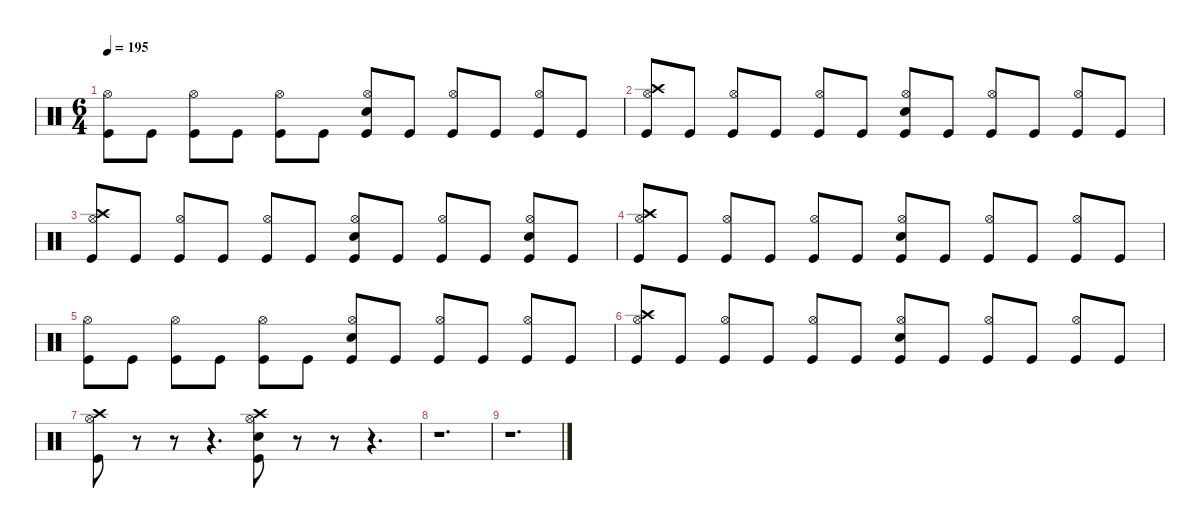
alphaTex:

\defaultSystemsLayout 4
\hideDynamics
\bracketExtendMode nobrackets
\singleTrackTrackNamePolicy hidden
\multiTrackTrackNamePolicy hidden
\firstSystemTrackNameMode fullname
\firstSystemTrackNameOrientation horizontal
\otherSystemsTrackNameOrientation horizontal
\track ("Percussion" "drm.") {defaultSystemsLayout 2 instrument percussion}
\staff {score}
\articulation defaults
\ts (6 4)
\tempo 195
\clef neutral
\ks c
("Hi-Hat (open)" "Kick (hit)").8{dy f beam Down} "Kick (hit)".8{beam Down} ("Hi-Hat (open)" "Kick (hit)").8{beam Down} "Kick (hit)".8{beam Down} ("Hi-Hat (open)" "Kick (hit)").8{beam Down} "Kick (hit)".8{beam Down} ("Snare (hit) 2" "Hi-Hat (open)" "Kick (hit)").8{beam Up} "Kick (hit)".8{beam Up} ("Hi-Hat (open)" "Kick (hit)").8{beam Up} "Kick (hit)".8{beam Up} ("Hi-Hat (open)" "Kick (hit)").8{beam Up} "Kick (hit)".8{beam Up} |
("Crash high (hit)" "Hi-Hat (open)" "Kick (hit)").8{beam Up} "Kick (hit)".8{beam Up} ("Hi-Hat (open)" "Kick (hit)").8{beam Up} "Kick (hit)".8{beam Up} ("Hi-Hat (open)" "Kick (hit)").8{beam Up} "Kick (hit)".8{beam Up} ("Snare (hit) 2" "Hi-Hat (open)" "Kick (hit)").8{beam Up} "Kick (hit)".8{beam Up} ("Hi-Hat (open)" "Kick (hit)").8{beam Up} "Kick (hit)".8{beam Up} ("Hi-Hat (open)" "Kick (hit)").8{beam Up} "Kick (hit)".8{beam Up} |
("Crash high (hit)" "Hi-Hat (open)" "Kick (hit)").8{beam Up} "Kick (hit)".8{beam Up} ("Hi-Hat (open)" "Kick (hit)").8{beam Up} "Kick (hit)".8{beam Up} ("Hi-Hat (open)" "Kick (hit)").8{beam Up} "Kick (hit)".8{beam Up} ("Snare (hit) 2" "Hi-Hat (open)" "Kick (hit)").8{beam Up} "Kick (hit)".8{beam Up} ("Hi-Hat (open)" "Kick (hit)").8{beam Up} "Kick (hit)".8{beam Up} ("Snare (hit) 2" "Hi-Hat (open)" "Kick (hit)").8{beam Up} "Kick (hit)".8{beam Up} |
("Crash high (hit)" "Hi-Hat (open)" "Kick (hit)").8{beam Up} "Kick (hit)".8{beam Up} ("Hi-Hat (open)" "Kick (hit)").8{beam Up} "Kick (hit)".8{beam Up} ("Hi-Hat (open)" "Kick (hit)").8{beam Up} "Kick (hit)".8{beam Up} ("Snare (hit) 2" "Hi-Hat (open)" "Kick (hit)").8{beam Up} "Kick (hit)".8{beam Up} ("Hi-Hat (open)" "Kick (hit)").8{beam Up} "Kick (hit)".8{beam Up} ("Hi-Hat (open)" "Kick (hit)").8{beam Up} "Kick (hit)".8{beam Up} |
("Hi-Hat (open)" "Kick (hit)").8{beam Down} "Kick (hit)".8{beam Down} ("Hi-Hat (open)" "Kick (hit)").8{beam Down} "Kick (hit)".8{beam Down} ("Hi-Hat (open)" "Kick (hit)").8{beam Down} "Kick (hit)".8{beam Down} ("Snare (hit) 2" "Hi-Hat (open)" "Kick (hit)").8{beam Up} "Kick (hit)".8{beam Up} ("Hi-Hat (open)" "Kick (hit)").8{beam Up} "Kick (hit)".8{beam Up} ("Hi-Hat (open)" "Kick (hit)").8{beam Up} "Kick (hit)".8{beam Up} |
("Crash high (hit)" "Hi-Hat (open)" "Kick (hit)").8{beam Up} "Kick (hit)".8{beam Up} ("Hi-Hat (open)" "Kick (hit)").8{beam Up} "Kick (hit)".8{beam Up} ("Hi-Hat (open)" "Kick (hit)").8{beam Up} "Kick (hit)".8{beam Up} ("Snare (hit) 2" "Hi-Hat (open)" "Kick (hit)").8{beam Up} "Kick (hit)".8{beam Up} ("Hi-Hat (open)" "Kick (hit)").8{beam Up} "Kick (hit)".8{beam Up} ("Hi-Hat (open)" "Kick (hit)").8{beam Up} "Kick (hit)".8{beam Up} |
("Crash high (hit)" "Hi-Hat (open)" "Kick (hit)").8{beam Down} r.8{beam Down} r.8{beam Down} r.4{d beam Down} ("Crash high (hit)" "Snare (hit) 2" "Hi-Hat (open)" "Kick (hit)").8{beam Down} r.8{beam Down} r.8{beam Down} r.4{d beam Down} |
r.1{d beam Down} |
r.1{d beam Down}
